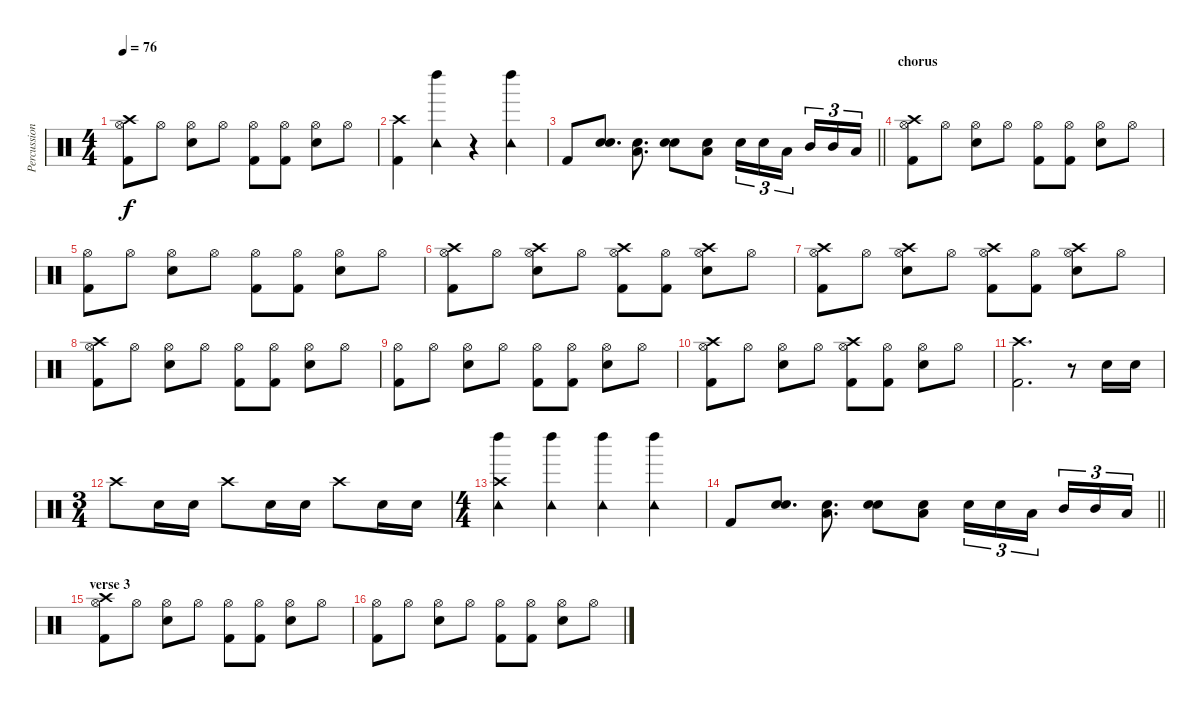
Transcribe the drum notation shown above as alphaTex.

\track ("Percussioni" "Percussion") {instrument percussion}
\staff {score}
\articulation defaults
\ts (4 4)
\tempo 76
\clef neutral
\ks c
("Hi-Hat (open)" "Kick (hit) 2" "Crash high (hit)").8{dy f} "Hi-Hat (open)".8 ("Hi-Hat (open)" "Electric Snare (hit)").8 "Hi-Hat (open)".8 ("Hi-Hat (open)" "Kick (hit) 2").8 ("Hi-Hat (open)" "Kick (hit) 2").8 ("Hi-Hat (open)" "Electric Snare (hit)").8 "Hi-Hat (open)".8 |
("Crash high (hit)" "Kick (hit) 2").4 ("Tambourine (hit)" "Left Maraca (hit)").4 r.4 ("Tambourine (hit)" "Left Maraca (hit)").4 |
\barLineRight lightlight "Kick (hit) 2".8
("Snare (hit) 2" "Electric Snare (hit)").8{d} ("Low Tom (hit)" "Electric Snare (hit)").8{d} ("Snare (hit) 2" "Electric Snare (hit)").8 ("Low Tom (hit)" "Electric Snare (hit)").8 "Electric Snare (hit)".16{tu (3 2)} "Electric Snare (hit)".16{tu (3 2)} "Low Tom (hit)".16{tu (3 2) beam splitsecondary} "Mid Tom (hit)".16{tu (3 2)} "Mid Tom (hit)".16{tu (3 2)} "Low Floor Tom (hit)".16{tu (3 2)} |
\section ("" "chorus")
("Hi-Hat (open)" "Kick (hit) 2" "Crash high (hit)").8 "Hi-Hat (open)".8 ("Hi-Hat (open)" "Electric Snare (hit)").8 "Hi-Hat (open)".8 ("Hi-Hat (open)" "Kick (hit) 2").8 ("Hi-Hat (open)" "Kick (hit) 2").8 ("Hi-Hat (open)" "Electric Snare (hit)").8 "Hi-Hat (open)".8 |
("Hi-Hat (open)" "Kick (hit) 2").8 "Hi-Hat (open)".8 ("Hi-Hat (open)" "Electric Snare (hit)").8 "Hi-Hat (open)".8 ("Hi-Hat (open)" "Kick (hit) 2").8 ("Hi-Hat (open)" "Kick (hit) 2").8 ("Hi-Hat (open)" "Electric Snare (hit)").8 "Hi-Hat (open)".8 |
("Hi-Hat (open)" "Kick (hit) 2" "Crash high (hit)").8 "Hi-Hat (open)".8 ("Hi-Hat (open)" "Electric Snare (hit)" "Crash high (hit)").8 "Hi-Hat (open)".8 ("Hi-Hat (open)" "Kick (hit) 2" "Crash high (hit)").8 ("Hi-Hat (open)" "Kick (hit) 2").8 ("Hi-Hat (open)" "Electric Snare (hit)" "Crash high (hit)").8 "Hi-Hat (open)".8 |
("Hi-Hat (open)" "Kick (hit) 2" "Crash high (hit)").8 "Hi-Hat (open)".8 ("Hi-Hat (open)" "Electric Snare (hit)" "Crash high (hit)").8 "Hi-Hat (open)".8 ("Hi-Hat (open)" "Kick (hit) 2" "Crash high (hit)").8 ("Hi-Hat (open)" "Kick (hit) 2").8 ("Hi-Hat (open)" "Electric Snare (hit)" "Crash high (hit)").8 "Hi-Hat (open)".8 |
("Hi-Hat (open)" "Kick (hit) 2" "Crash high (hit)").8 "Hi-Hat (open)".8 ("Hi-Hat (open)" "Electric Snare (hit)").8 "Hi-Hat (open)".8 ("Hi-Hat (open)" "Kick (hit) 2").8 ("Hi-Hat (open)" "Kick (hit) 2").8 ("Hi-Hat (open)" "Electric Snare (hit)").8 "Hi-Hat (open)".8 |
("Hi-Hat (open)" "Kick (hit) 2").8 "Hi-Hat (open)".8 ("Hi-Hat (open)" "Electric Snare (hit)").8 "Hi-Hat (open)".8 ("Hi-Hat (open)" "Kick (hit) 2").8 ("Hi-Hat (open)" "Kick (hit) 2").8 ("Hi-Hat (open)" "Electric Snare (hit)").8 "Hi-Hat (open)".8 |
("Hi-Hat (open)" "Kick (hit) 2" "Crash high (hit)").8 "Hi-Hat (open)".8 ("Hi-Hat (open)" "Electric Snare (hit)").8 "Hi-Hat (open)".8 ("Hi-Hat (open)" "Kick (hit) 2" "Crash high (hit)").8 ("Hi-Hat (open)" "Kick (hit) 2").8 ("Hi-Hat (open)" "Electric Snare (hit)").8 "Hi-Hat (open)".8 |
("Crash high (hit)" "Kick (hit) 2").2{d} r.8 "Electric Snare (hit)".16 "Electric Snare (hit)".16 |
\ts (3 4)
"Crash high (hit)".8 "Electric Snare (hit)".16 "Electric Snare (hit)".16 "Crash high (hit)".8 "Electric Snare (hit)".16 "Electric Snare (hit)".16 "Crash high (hit)".8 "Electric Snare (hit)".16 "Electric Snare (hit)".16 |
\ts (4 4)
("Crash high (hit)" "Tambourine (hit)" "Left Maraca (hit)").4 ("Tambourine (hit)" "Left Maraca (hit)").4 ("Tambourine (hit)" "Left Maraca (hit)").4 ("Tambourine (hit)" "Left Maraca (hit)").4 |
\barLineRight lightlight "Kick (hit) 2".8
("Snare (hit) 2" "Electric Snare (hit)").8{d} ("Low Tom (hit)" "Electric Snare (hit)").8{d} ("Snare (hit) 2" "Electric Snare (hit)").8 ("Low Tom (hit)" "Electric Snare (hit)").8 "Electric Snare (hit)".16{tu (3 2)} "Electric Snare (hit)".16{tu (3 2)} "Low Tom (hit)".16{tu (3 2) beam splitsecondary} "Mid Tom (hit)".16{tu (3 2)} "Mid Tom (hit)".16{tu (3 2)} "Low Floor Tom (hit)".16{tu (3 2)} |
\section ("" "verse 3")
("Hi-Hat (open)" "Kick (hit) 2" "Crash high (hit)").8 "Hi-Hat (open)".8 ("Hi-Hat (open)" "Electric Snare (hit)").8 "Hi-Hat (open)".8 ("Hi-Hat (open)" "Kick (hit) 2").8 ("Hi-Hat (open)" "Kick (hit) 2").8 ("Hi-Hat (open)" "Electric Snare (hit)").8 "Hi-Hat (open)".8 |
("Hi-Hat (open)" "Kick (hit) 2").8 "Hi-Hat (open)".8 ("Hi-Hat (open)" "Electric Snare (hit)").8 "Hi-Hat (open)".8 ("Hi-Hat (open)" "Kick (hit) 2").8 ("Hi-Hat (open)" "Kick (hit) 2").8 ("Hi-Hat (open)" "Electric Snare (hit)").8 "Hi-Hat (open)".8
